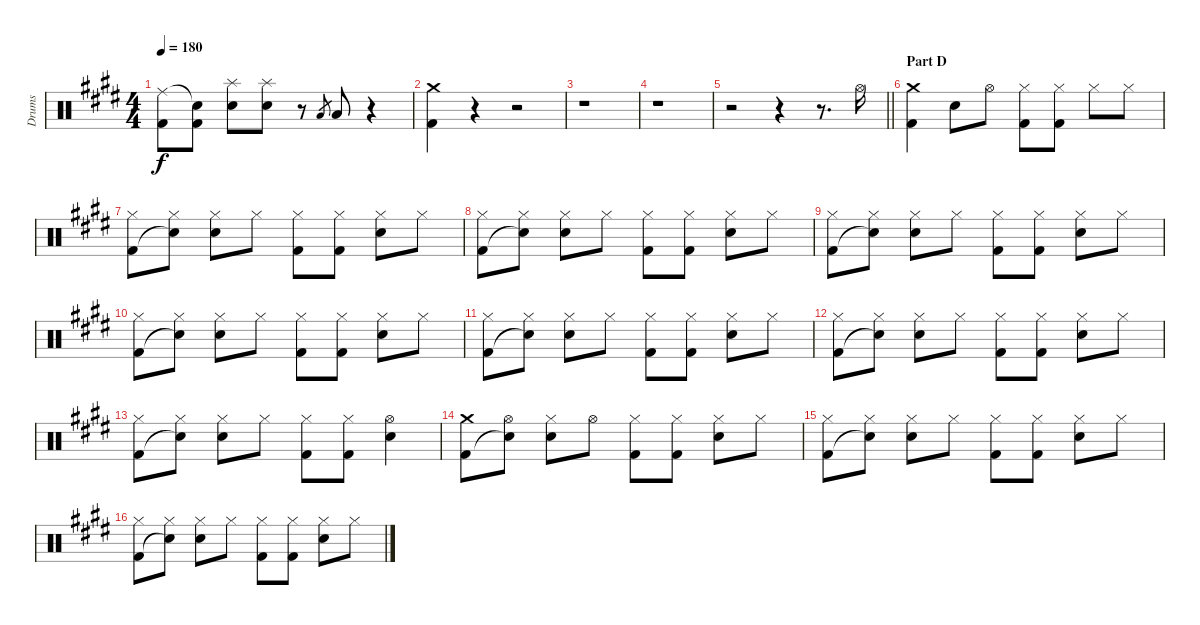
\track ("Drums" "Drums") {instrument percussion}
\staff {score}
\articulation defaults
\ts (4 4)
\tempo 180
\clef neutral
\ks e
("Ride (middle)" "Kick (hit) 2").8{dy f} ("Snare (hit)"{t} "Kick (hit) 2").8 ("Splash (hit)" "Electric Snare (hit)").8 ("Splash (hit)" "Electric Snare (hit)").8 r.8 "Low Floor Tom (hit)".8{gr} "Low Floor Tom (hit)".8 r.4 |
("Crash medium (hit)" "Kick (hit) 2").4 r.4 r.2 |
r.1 |
r.1 |
\barLineRight lightlight
r.2 r.4 r.8{d} "Hi-Hat (open)".16 |
\section ("" "Part D")
("Crash medium (hit)" "Kick (hit) 2").4 "Electric Snare (hit)".8 "Hi-Hat (open)".8 ("Hi-Hat (closed)" "Kick (hit) 2").8 ("Hi-Hat (closed)" "Kick (hit) 2").8 "Hi-Hat (closed)".8 "Hi-Hat (closed)".8 |
("Hi-Hat (closed)" "Kick (hit) 2").8 ("Hi-Hat (closed)" "Snare (hit)"{t}).8 ("Hi-Hat (closed)" "Electric Snare (hit)").8 "Hi-Hat (closed)".8 ("Hi-Hat (closed)" "Kick (hit) 2").8 ("Hi-Hat (closed)" "Kick (hit) 2").8 ("Hi-Hat (closed)" "Electric Snare (hit)").8 "Hi-Hat (closed)".8 |
("Hi-Hat (closed)" "Kick (hit) 2").8 ("Hi-Hat (closed)" "Snare (hit)"{t}).8 ("Hi-Hat (closed)" "Electric Snare (hit)").8 "Hi-Hat (closed)".8 ("Hi-Hat (closed)" "Kick (hit) 2").8 ("Hi-Hat (closed)" "Kick (hit) 2").8 ("Hi-Hat (closed)" "Electric Snare (hit)").8 "Hi-Hat (closed)".8 |
("Hi-Hat (closed)" "Kick (hit) 2").8 ("Hi-Hat (closed)" "Snare (hit)"{t}).8 ("Hi-Hat (closed)" "Electric Snare (hit)").8 "Hi-Hat (closed)".8 ("Hi-Hat (closed)" "Kick (hit) 2").8 ("Hi-Hat (closed)" "Kick (hit) 2").8 ("Hi-Hat (closed)" "Electric Snare (hit)").8 "Hi-Hat (closed)".8 |
("Hi-Hat (closed)" "Kick (hit) 2").8 ("Hi-Hat (closed)" "Snare (hit)"{t}).8 ("Hi-Hat (closed)" "Electric Snare (hit)").8 "Hi-Hat (closed)".8 ("Hi-Hat (closed)" "Kick (hit) 2").8 ("Hi-Hat (closed)" "Kick (hit) 2").8 ("Hi-Hat (closed)" "Electric Snare (hit)").8 "Hi-Hat (closed)".8 |
("Hi-Hat (closed)" "Kick (hit) 2").8 ("Hi-Hat (closed)" "Snare (hit)"{t}).8 ("Hi-Hat (closed)" "Electric Snare (hit)").8 "Hi-Hat (closed)".8 ("Hi-Hat (closed)" "Kick (hit) 2").8 ("Hi-Hat (closed)" "Kick (hit) 2").8 ("Hi-Hat (closed)" "Electric Snare (hit)").8 "Hi-Hat (closed)".8 |
("Hi-Hat (closed)" "Kick (hit) 2").8 ("Hi-Hat (closed)" "Snare (hit)"{t}).8 ("Hi-Hat (closed)" "Electric Snare (hit)").8 "Hi-Hat (closed)".8 ("Hi-Hat (closed)" "Kick (hit) 2").8 ("Hi-Hat (closed)" "Kick (hit) 2").8 ("Hi-Hat (closed)" "Electric Snare (hit)").8 "Hi-Hat (closed)".8 |
("Hi-Hat (closed)" "Kick (hit) 2").8 ("Hi-Hat (closed)" "Snare (hit)"{t}).8 ("Hi-Hat (closed)" "Electric Snare (hit)").8 "Hi-Hat (closed)".8 ("Hi-Hat (closed)" "Kick (hit) 2").8 ("Hi-Hat (closed)" "Kick (hit) 2").8 ("Hi-Hat (open)" "Electric Snare (hit)").4 |
("Crash medium (hit)" "Kick (hit) 2").8 ("Hi-Hat (open)" "Snare (hit)"{t}).8 ("Hi-Hat (closed)" "Electric Snare (hit)").8 "Hi-Hat (open)".8 ("Hi-Hat (closed)" "Kick (hit) 2").8 ("Hi-Hat (closed)" "Kick (hit) 2").8 ("Hi-Hat (closed)" "Electric Snare (hit)").8 "Hi-Hat (closed)".8 |
("Hi-Hat (closed)" "Kick (hit) 2").8 ("Hi-Hat (closed)" "Snare (hit)"{t}).8 ("Hi-Hat (closed)" "Electric Snare (hit)").8 "Hi-Hat (closed)".8 ("Hi-Hat (closed)" "Kick (hit) 2").8 ("Hi-Hat (closed)" "Kick (hit) 2").8 ("Hi-Hat (closed)" "Electric Snare (hit)").8 "Hi-Hat (closed)".8 |
("Hi-Hat (closed)" "Kick (hit) 2").8 ("Hi-Hat (closed)" "Snare (hit)"{t}).8 ("Hi-Hat (closed)" "Electric Snare (hit)").8 "Hi-Hat (closed)".8 ("Hi-Hat (closed)" "Kick (hit) 2").8 ("Hi-Hat (closed)" "Kick (hit) 2").8 ("Hi-Hat (closed)" "Electric Snare (hit)").8 "Hi-Hat (closed)".8
